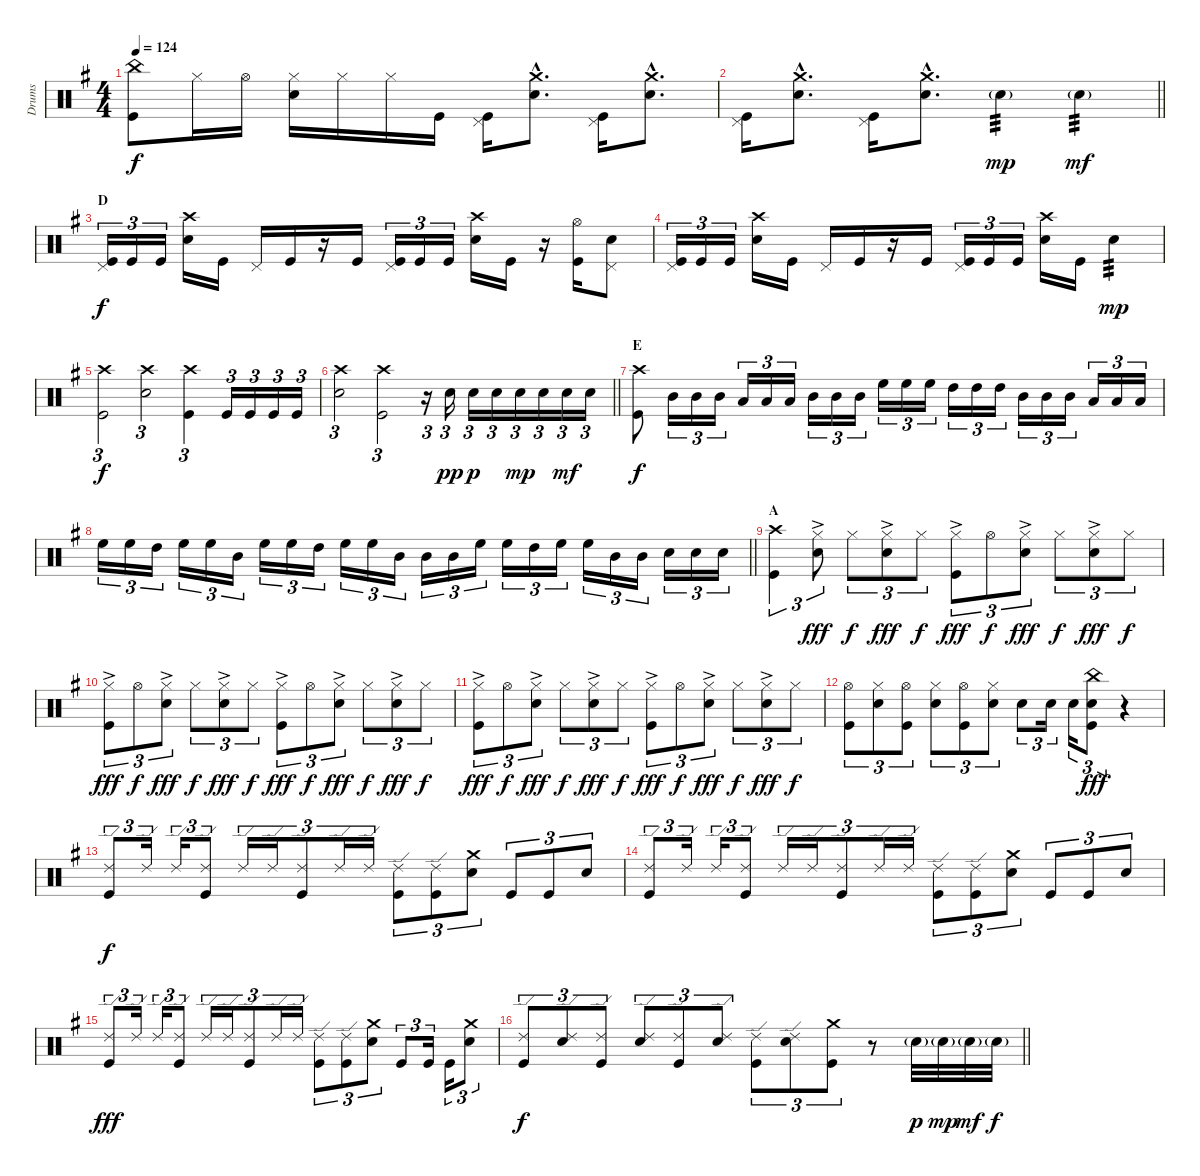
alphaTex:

\track ("Drums" "Drums") {instrument percussion}
\staff {score}
\articulation defaults
\ts (4 4)
\tempo 124
\clef neutral
\ks eminor
("China (hit)" "Kick (hit)").8{dy f} "Hi-Hat (closed)".16 "Hi-Hat (open)".16 ("Hi-Hat (closed)" "Electric Snare (hit)").16 "Hi-Hat (closed)".16 "Hi-Hat (closed)".16 "Kick (hit)".16 ("Pedal Hi-Hat (hit)" "Kick (hit)").16 ("Crash medium (hit)"{hac} "Electric Snare (hit)"{hac}).8{d} ("Pedal Hi-Hat (hit)" "Kick (hit)").16 ("Crash medium (hit)"{hac} "Electric Snare (hit)"{hac}).8{d} |
\barLineRight lightlight
("Pedal Hi-Hat (hit)" "Kick (hit)").16 ("Crash medium (hit)"{hac} "Electric Snare (hit)"{hac}).8{d} ("Pedal Hi-Hat (hit)" "Kick (hit)").16 ("Crash medium (hit)"{hac} "Electric Snare (hit)"{hac}).8{d} "Electric Snare (hit)"{g}.4{tp 3 dy mp} "Electric Snare (hit)"{g}.4{tp 3 dy mf} |
\section ("" "D")
("Pedal Hi-Hat (hit)" "Kick (hit)").16{tu (3 2) dy f} "Kick (hit)".16{tu (3 2)} "Kick (hit)".16{tu (3 2)} ("Crash high (hit)" "Electric Snare (hit)").16 "Kick (hit)".16 "Pedal Hi-Hat (hit)".16 "Kick (hit)".16 r.16 "Kick (hit)".16 ("Pedal Hi-Hat (hit)" "Kick (hit)").16{tu (3 2)} "Kick (hit)".16{tu (3 2)} "Kick (hit)".16{tu (3 2)} ("Crash high (hit)" "Electric Snare (hit)").16 "Kick (hit)".16 r.16 ("Hi-Hat (open)" "Kick (hit)").16 ("Pedal Hi-Hat (hit)" "Electric Snare (hit)").8 |
("Pedal Hi-Hat (hit)" "Kick (hit)").16{tu (3 2)} "Kick (hit)".16{tu (3 2)} "Kick (hit)".16{tu (3 2)} ("Crash high (hit)" "Electric Snare (hit)").16 "Kick (hit)".16 "Pedal Hi-Hat (hit)".16 "Kick (hit)".16 r.16 "Kick (hit)".16 ("Pedal Hi-Hat (hit)" "Kick (hit)").16{tu (3 2)} "Kick (hit)".16{tu (3 2)} "Kick (hit)".16{tu (3 2)} ("Crash high (hit)" "Electric Snare (hit)").16 "Kick (hit)".16 "Electric Snare (hit)".4{tp 3 dy mp} |
("Crash high (hit)" "Kick (hit)").2{tu (3 2) dy f} ("Crash high (hit)" "Electric Snare (hit)").2{tu (3 2)} ("Crash high (hit)" "Kick (hit)").4{tu (3 2)} "Kick (hit)".16{tu (3 2)} "Kick (hit)".16{tu (3 2)} "Kick (hit)".16{tu (3 2)} "Kick (hit)".16{tu (3 2)} |
\barLineRight lightlight
("Crash high (hit)" "Electric Snare (hit)").2{tu (3 2)} ("Crash high (hit)" "Kick (hit)").2{tu (3 2)} r.16{tu (3 2)} "Electric Snare (hit)".16{tu (3 2) dy pp} "Electric Snare (hit)".16{tu (3 2) dy p} "Electric Snare (hit)".16{tu (3 2)} "Electric Snare (hit)".16{tu (3 2) dy mp} "Electric Snare (hit)".16{tu (3 2)} "Electric Snare (hit)".16{tu (3 2) dy mf} "Electric Snare (hit)".16{tu (3 2)} |
\section ("" "E")
("Crash high (hit)" "Kick (hit)").8{dy f} "Mid Tom (hit)".16{tu (3 2)} "Mid Tom (hit)".16{tu (3 2)} "Mid Tom (hit)".16{tu (3 2)} "Low Tom (hit)".16{tu (3 2)} "Low Tom (hit)".16{tu (3 2)} "Low Tom (hit)".16{tu (3 2)} "Mid Tom (hit)".16{tu (3 2)} "Mid Tom (hit)".16{tu (3 2)} "Mid Tom (hit)".16{tu (3 2)} "High Floor Tom (hit)".16{tu (3 2)} "High Floor Tom (hit)".16{tu (3 2)} "High Floor Tom (hit)".16{tu (3 2)} "High Tom (hit)".16{tu (3 2)} "High Tom (hit)".16{tu (3 2)} "High Tom (hit)".16{tu (3 2)} "Mid Tom (hit)".16{tu (3 2)} "Mid Tom (hit)".16{tu (3 2)} "Mid Tom (hit)".16{tu (3 2)} "Low Tom (hit)".16{tu (3 2)} "Low Tom (hit)".16{tu (3 2)} "Low Tom (hit)".16{tu (3 2)} |
\barLineRight lightlight "High Floor Tom (hit)".16{tu (3 2)} "High Floor Tom (hit)".16{tu (3 2)} "High Tom (hit)".16{tu (3 2)} "High Floor Tom (hit)".16{tu (3 2)} "High Floor Tom (hit)".16{tu (3 2)} "Mid Tom (hit)".16{tu (3 2)} "High Floor Tom (hit)".16{tu (3 2)} "High Floor Tom (hit)".16{tu (3 2)} "High Tom (hit)".16{tu (3 2)} "High Floor Tom (hit)".16{tu (3 2)} "High Floor Tom (hit)".16{tu (3 2)} "Mid Tom (hit)".16{tu (3 2)} "Mid Tom (hit)".16{tu (3 2)} "Mid Tom (hit)".16{tu (3 2)} "High Floor Tom (hit)".16{tu (3 2)} "High Floor Tom (hit)".16{tu (3 2)} "High Tom (hit)".16{tu (3 2)} "High Floor Tom (hit)".16{tu (3 2)} "High Floor Tom (hit)".16{tu (3 2)} "Mid Tom (hit)".16{tu (3 2)} "Mid Tom (hit)".16{tu (3 2)} "Electric Snare (hit)".16{tu (3 2)} "Electric Snare (hit)".16{tu (3 2)} "Electric Snare (hit)".16{tu (3 2)}
|
\section ("" "A")
("Crash high (hit)" "Kick (hit)").4{tu (3 2)} ("Hi-Hat (closed)"{ac} "Electric Snare (hit)").8{tu (3 2) dy fff} "Hi-Hat (closed)".8{tu (3 2) dy f} ("Hi-Hat (closed)"{ac} "Electric Snare (hit)").8{tu (3 2) dy fff} "Hi-Hat (closed)".8{tu (3 2) dy f} ("Hi-Hat (closed)"{ac} "Kick (hit)").8{tu (3 2) dy fff} "Hi-Hat (open)".8{tu (3 2) dy f} ("Hi-Hat (closed)"{ac} "Electric Snare (hit)").8{tu (3 2) dy fff} "Hi-Hat (closed)".8{tu (3 2) dy f} ("Hi-Hat (closed)"{ac} "Electric Snare (hit)").8{tu (3 2) dy fff} "Hi-Hat (closed)".8{tu (3 2) dy f} |
("Hi-Hat (closed)"{ac} "Kick (hit)").8{tu (3 2) dy fff} "Hi-Hat (open)".8{tu (3 2) dy f} ("Hi-Hat (closed)"{ac} "Electric Snare (hit)").8{tu (3 2) dy fff} "Hi-Hat (closed)".8{tu (3 2) dy f} ("Hi-Hat (closed)"{ac} "Electric Snare (hit)").8{tu (3 2) dy fff} "Hi-Hat (closed)".8{tu (3 2) dy f} ("Hi-Hat (closed)"{ac} "Kick (hit)").8{tu (3 2) dy fff} "Hi-Hat (open)".8{tu (3 2) dy f} ("Hi-Hat (closed)"{ac} "Electric Snare (hit)").8{tu (3 2) dy fff} "Hi-Hat (closed)".8{tu (3 2) dy f} ("Hi-Hat (closed)"{ac} "Electric Snare (hit)").8{tu (3 2) dy fff} "Hi-Hat (closed)".8{tu (3 2) dy f} |
("Hi-Hat (closed)"{ac} "Kick (hit)").8{tu (3 2) dy fff} "Hi-Hat (open)".8{tu (3 2) dy f} ("Hi-Hat (closed)"{ac} "Electric Snare (hit)").8{tu (3 2) dy fff} "Hi-Hat (closed)".8{tu (3 2) dy f} ("Hi-Hat (closed)"{ac} "Electric Snare (hit)").8{tu (3 2) dy fff} "Hi-Hat (closed)".8{tu (3 2) dy f} ("Hi-Hat (closed)"{ac} "Kick (hit)").8{tu (3 2) dy fff} "Hi-Hat (open)".8{tu (3 2) dy f} ("Hi-Hat (closed)"{ac} "Electric Snare (hit)").8{tu (3 2) dy fff} "Hi-Hat (closed)".8{tu (3 2) dy f} ("Hi-Hat (closed)"{ac} "Electric Snare (hit)").8{tu (3 2) dy fff} "Hi-Hat (closed)".8{tu (3 2) dy f} |
("Hi-Hat (open)" "Kick (hit)").8{tu (3 2)} ("Hi-Hat (closed)" "Electric Snare (hit)").8{tu (3 2)} ("Hi-Hat (open)" "Kick (hit)").8{tu (3 2)} ("Hi-Hat (closed)" "Electric Snare (hit)").8{tu (3 2)} ("Hi-Hat (open)" "Kick (hit)").8{tu (3 2)} ("Hi-Hat (closed)" "Electric Snare (hit)").8{tu (3 2)} "Electric Snare (hit)".8{tu (3 2)} "Electric Snare (hit)".16{tu (3 2)} "Electric Snare (hit)".16{tu (3 2)} ("China (hit)" "Electric Snare (hit)" "Kick (hit)").8{tu (3 2) dy fff} r.4 |
("Ride (edge) 2" "Kick (hit)").8{tu (3 2) dy f} "Ride (edge) 2".16{tu (3 2)} "Ride (edge) 2".16{tu (3 2)} ("Ride (edge) 2" "Kick (hit)").8{tu (3 2)} "Ride (edge) 2".16{tu (3 2)} "Ride (edge) 2".16{tu (3 2)} ("Ride (edge) 2" "Kick (hit)").8{tu (3 2)} "Ride (edge) 2".16{tu (3 2)} "Ride (edge) 2".16{tu (3 2)} ("Ride (edge) 2" "Kick (hit)").8{tu (3 2)} ("Ride (edge) 2" "Kick (hit)").8{tu (3 2)} ("Crash medium (hit)" "Electric Snare (hit)").8{tu (3 2)} "Kick (hit)".8{tu (3 2)} "Kick (hit)".8{tu (3 2)} "Electric Snare (hit)".8{tu (3 2)} |
("Ride (edge) 2" "Kick (hit)").8{tu (3 2)} "Ride (edge) 2".16{tu (3 2)} "Ride (edge) 2".16{tu (3 2)} ("Ride (edge) 2" "Kick (hit)").8{tu (3 2)} "Ride (edge) 2".16{tu (3 2)} "Ride (edge) 2".16{tu (3 2)} ("Ride (edge) 2" "Kick (hit)").8{tu (3 2)} "Ride (edge) 2".16{tu (3 2)} "Ride (edge) 2".16{tu (3 2)} ("Ride (edge) 2" "Kick (hit)").8{tu (3 2)} ("Ride (edge) 2" "Kick (hit)").8{tu (3 2)} ("Crash medium (hit)" "Electric Snare (hit)").8{tu (3 2)} "Kick (hit)".8{tu (3 2)} "Kick (hit)".8{tu (3 2)} "Electric Snare (hit)".8{tu (3 2)} |
("Ride (edge) 2" "Kick (hit)").8{tu (3 2) dy fff} "Ride (edge) 2".16{tu (3 2)} "Ride (edge) 2".16{tu (3 2)} ("Ride (edge) 2" "Kick (hit)").8{tu (3 2)} "Ride (edge) 2".16{tu (3 2)} "Ride (edge) 2".16{tu (3 2)} ("Ride (edge) 2" "Kick (hit)").8{tu (3 2)} "Ride (edge) 2".16{tu (3 2)} "Ride (edge) 2".16{tu (3 2)} ("Ride (edge) 2" "Kick (hit)").8{tu (3 2)} ("Ride (edge) 2" "Kick (hit)").8{tu (3 2)} ("Crash medium (hit)" "Electric Snare (hit)").8{tu (3 2)} "Kick (hit)".8{tu (3 2)} "Kick (hit)".16{tu (3 2)} "Kick (hit)".16{tu (3 2)} ("Crash medium (hit)" "Electric Snare (hit)").8{tu (3 2)} |
\barLineRight lightlight
("Ride (edge) 2" "Kick (hit)").8{tu (3 2) dy f} ("Ride (edge) 2" "Electric Snare (hit)").8{tu (3 2)} ("Ride (edge) 2" "Kick (hit)").8{tu (3 2)} ("Ride (edge) 2" "Electric Snare (hit)").8{tu (3 2)} ("Ride (edge) 2" "Kick (hit)").8{tu (3 2)} ("Ride (edge) 2" "Electric Snare (hit)").8{tu (3 2)} ("Ride (edge) 2" "Kick (hit)").8{tu (3 2)} ("Ride (edge) 2" "Electric Snare (hit)").8{tu (3 2)} ("Crash medium (hit)" "Kick (hit)").8{tu (3 2)} r.8 "Electric Snare (hit)"{g}.32{dy p} "Electric Snare (hit)"{g}.32{dy mp} "Electric Snare (hit)"{g}.32{dy mf} "Electric Snare (hit)"{g}.32{dy f}
